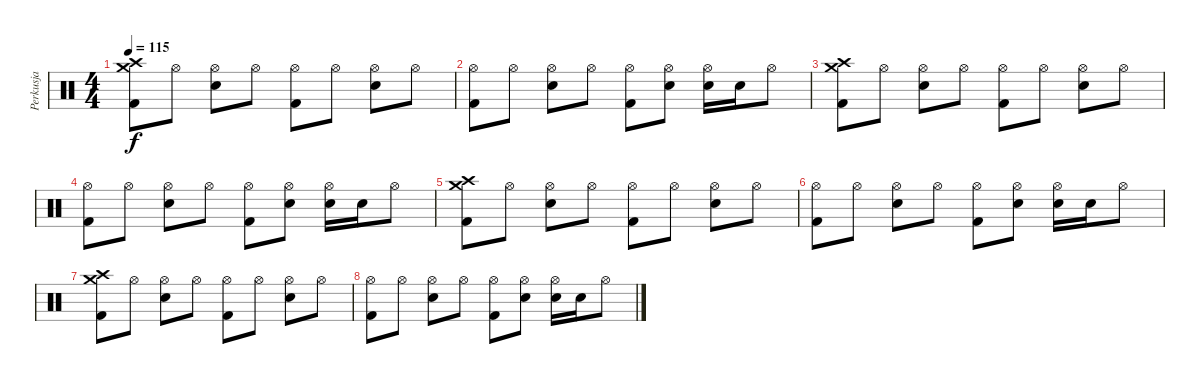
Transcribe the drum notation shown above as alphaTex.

\track ("Perkusja" "Perkusja") {instrument percussion}
\staff {score}
\articulation defaults
\ts (4 4)
\tempo 115
\clef neutral
\ks c
("Crash high (hit)" "Crash medium (hit)" "Kick (hit) 2").8{dy f} "Hi-Hat (open)".8 ("Hi-Hat (open)" "Electric Snare (hit)").8 "Hi-Hat (open)".8 ("Hi-Hat (open)" "Kick (hit) 2").8 "Hi-Hat (open)".8 ("Hi-Hat (open)" "Electric Snare (hit)").8 "Hi-Hat (open)".8 |
("Hi-Hat (open)" "Kick (hit) 2").8 "Hi-Hat (open)".8 ("Hi-Hat (open)" "Electric Snare (hit)").8 "Hi-Hat (open)".8 ("Hi-Hat (open)" "Kick (hit) 2").8 ("Hi-Hat (open)" "Electric Snare (hit)").8 ("Hi-Hat (open)" "Electric Snare (hit)").16 "Electric Snare (hit)".16 "Hi-Hat (open)".8 |
("Crash high (hit)" "Crash medium (hit)" "Kick (hit) 2").8 "Hi-Hat (open)".8 ("Hi-Hat (open)" "Electric Snare (hit)").8 "Hi-Hat (open)".8 ("Hi-Hat (open)" "Kick (hit) 2").8 "Hi-Hat (open)".8 ("Hi-Hat (open)" "Electric Snare (hit)").8 "Hi-Hat (open)".8 |
("Hi-Hat (open)" "Kick (hit) 2").8 "Hi-Hat (open)".8 ("Hi-Hat (open)" "Electric Snare (hit)").8 "Hi-Hat (open)".8 ("Hi-Hat (open)" "Kick (hit) 2").8 ("Hi-Hat (open)" "Electric Snare (hit)").8 ("Hi-Hat (open)" "Electric Snare (hit)").16 "Electric Snare (hit)".16 "Hi-Hat (open)".8 |
("Crash high (hit)" "Crash medium (hit)" "Kick (hit) 2").8 "Hi-Hat (open)".8 ("Hi-Hat (open)" "Electric Snare (hit)").8 "Hi-Hat (open)".8 ("Hi-Hat (open)" "Kick (hit) 2").8 "Hi-Hat (open)".8 ("Hi-Hat (open)" "Electric Snare (hit)").8 "Hi-Hat (open)".8 |
("Hi-Hat (open)" "Kick (hit) 2").8 "Hi-Hat (open)".8 ("Hi-Hat (open)" "Electric Snare (hit)").8 "Hi-Hat (open)".8 ("Hi-Hat (open)" "Kick (hit) 2").8 ("Hi-Hat (open)" "Electric Snare (hit)").8 ("Hi-Hat (open)" "Electric Snare (hit)").16 "Electric Snare (hit)".16 "Hi-Hat (open)".8 |
("Crash high (hit)" "Crash medium (hit)" "Kick (hit) 2").8 "Hi-Hat (open)".8 ("Hi-Hat (open)" "Electric Snare (hit)").8 "Hi-Hat (open)".8 ("Hi-Hat (open)" "Kick (hit) 2").8 "Hi-Hat (open)".8 ("Hi-Hat (open)" "Electric Snare (hit)").8 "Hi-Hat (open)".8 |
("Hi-Hat (open)" "Kick (hit) 2").8 "Hi-Hat (open)".8 ("Hi-Hat (open)" "Electric Snare (hit)").8 "Hi-Hat (open)".8 ("Hi-Hat (open)" "Kick (hit) 2").8 ("Hi-Hat (open)" "Electric Snare (hit)").8 ("Hi-Hat (open)" "Electric Snare (hit)").16 "Electric Snare (hit)".16 "Hi-Hat (open)".8
